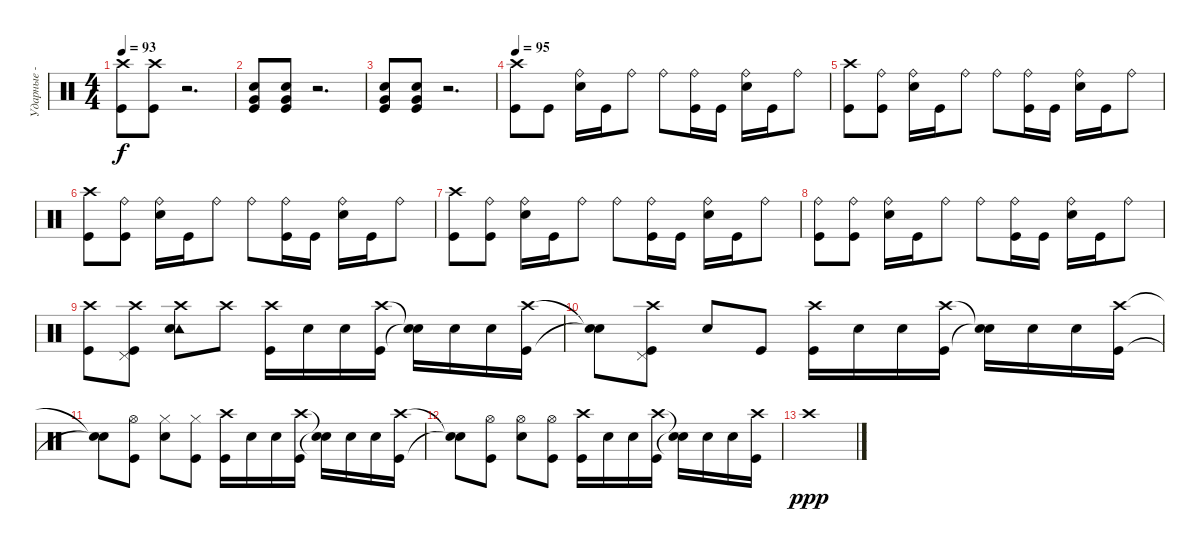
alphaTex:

\track ("Ударные - Джек Уайт" "Ударные - ") {instrument percussion}
\staff {score}
\articulation defaults
\ts (4 4)
\tempo 93
\clef neutral
\ks c
("Crash high (hit)" "Kick (hit)").8{dy f} ("Crash high (hit)" "Kick (hit)").8 r.2{d} |
("Electric Snare (hit)" "Very Low Tom (hit)" "Kick (hit)").8 ("Electric Snare (hit)" "Very Low Tom (hit)" "Kick (hit)").8 r.2{d} |
("Electric Snare (hit)" "Very Low Tom (hit)" "Kick (hit)").8 ("Electric Snare (hit)" "Very Low Tom (hit)" "Kick (hit)").8 r.2{d} |
\tempo 95
("Crash high (hit)" "Kick (hit)").8 "Kick (hit)".8 ("Ride (bell)" "Electric Snare (hit)").16 "Kick (hit)".16 "Ride (bell)".8 "Ride (bell)".8 ("Ride (bell)" "Kick (hit)").16 "Kick (hit)".16 ("Ride (bell)" "Electric Snare (hit)").16 "Kick (hit)".16 "Ride (bell)".8 |
("Crash high (hit)" "Kick (hit)").8 ("Ride (bell)" "Kick (hit)").8 ("Ride (bell)" "Electric Snare (hit)").16 "Kick (hit)".16 "Ride (bell)".8 "Ride (bell)".8 ("Ride (bell)" "Kick (hit)").16 "Kick (hit)".16 ("Ride (bell)" "Electric Snare (hit)").16 "Kick (hit)".16 "Ride (bell)".8 |
("Crash high (hit)" "Kick (hit)").8 ("Ride (bell)" "Kick (hit)").8 ("Ride (bell)" "Electric Snare (hit)").16 "Kick (hit)".16 "Ride (bell)".8 "Ride (bell)".8 ("Ride (bell)" "Kick (hit)").16 "Kick (hit)".16 ("Ride (bell)" "Electric Snare (hit)").16 "Kick (hit)".16 "Ride (bell)".8 |
("Crash high (hit)" "Kick (hit)").8 ("Ride (bell)" "Kick (hit)").8 ("Ride (bell)" "Electric Snare (hit)").16 "Kick (hit)".16 "Ride (bell)".8 "Ride (bell)".8 ("Ride (bell)" "Kick (hit)").16 "Kick (hit)".16 ("Ride (bell)" "Electric Snare (hit)").16 "Kick (hit)".16 "Ride (bell)".8 |
("Ride (bell)" "Kick (hit)").8 ("Ride (bell)" "Kick (hit)").8 ("Ride (bell)" "Electric Snare (hit)").16 "Kick (hit)".16 "Ride (bell)".8 "Ride (bell)".8 ("Ride (bell)" "Kick (hit)").16 "Kick (hit)".16 ("Ride (bell)" "Electric Snare (hit)").16 "Kick (hit)".16 "Ride (bell)".8 |
("Crash high (hit)" "Kick (hit)").8 ("Crash high (hit)" "Pedal Hi-Hat (hit)" "Kick (hit)").8 ("Crash high (hit)" "Tambourine (hit)" "Electric Snare (hit)").8 "Crash high (hit)".8 ("Crash high (hit)" "Kick (hit)").16 "Electric Snare (hit)".16 "Snare (hit) 2".16 ("Crash high (hit)" "Kick (hit)").16 ("Snare (hit)"{t} "Snare (hit)"{t}).16 "Snare (hit) 2".16 "Electric Snare (hit)".16 ("Crash high (hit)" "Kick (hit)").16 |
("Snare (hit)"{t} "Snare (hit)"{t}).8 ("Crash high (hit)" "Pedal Hi-Hat (hit)" "Kick (hit)").8 "Electric Snare (hit)".8 "Kick (hit)".8 ("Crash high (hit)" "Kick (hit)").16 "Electric Snare (hit)".16 "Snare (hit) 2".16 ("Crash high (hit)" "Kick (hit)").16 ("Snare (hit)"{t} "Snare (hit)"{t}).16 "Snare (hit) 2".16 "Electric Snare (hit)".16 ("Crash high (hit)" "Kick (hit)").16 |
("Snare (hit)"{t} "Snare (hit)"{t}).8 ("Hi-Hat (open)" "Kick (hit)").8 ("Hi-Hat (closed)" "Snare (hit) 2").8 ("Hi-Hat (closed)" "Kick (hit)").8 ("Crash high (hit)" "Kick (hit)").16 "Electric Snare (hit)".16 "Snare (hit) 2".16 ("Crash high (hit)" "Kick (hit)").16 ("Snare (hit)"{t} "Snare (hit)"{t}).16 "Snare (hit) 2".16 "Electric Snare (hit)".16 ("Crash high (hit)" "Kick (hit)").16 |
("Snare (hit)"{t} "Snare (hit)"{t}).8 ("Hi-Hat (open)" "Kick (hit)").8 ("Hi-Hat (open)" "Snare (hit) 2").8 ("Hi-Hat (open)" "Kick (hit)").8 ("Crash high (hit)" "Kick (hit)").16 "Electric Snare (hit)".16 "Snare (hit) 2".16 ("Crash high (hit)" "Kick (hit)").16 ("Snare (hit)"{t} "Snare (hit)"{t}).16 "Snare (hit) 2".16 "Electric Snare (hit)".16 ("Crash high (hit)" "Kick (hit)").16 |
"Crash high (hit)".1{dy ppp}
